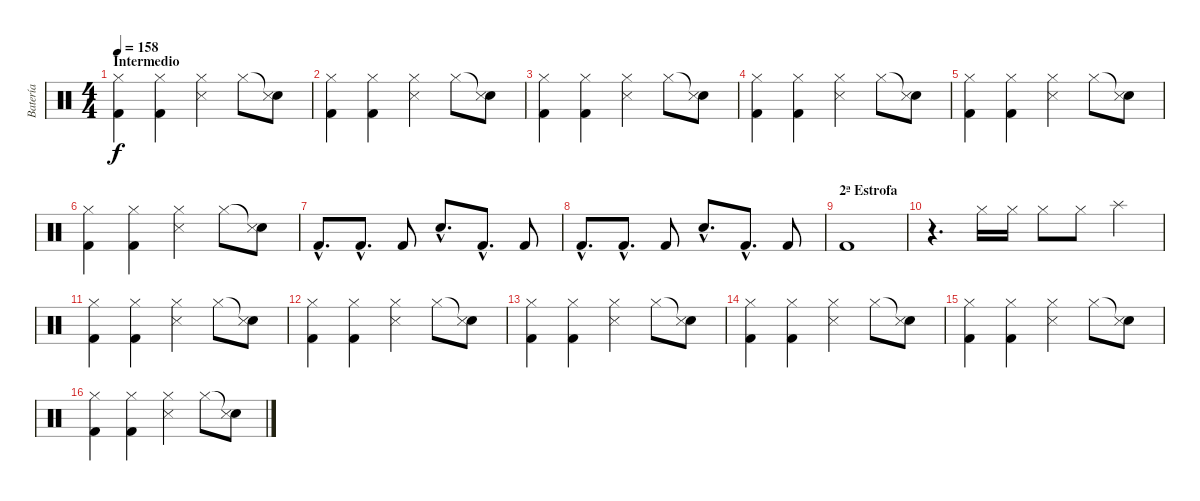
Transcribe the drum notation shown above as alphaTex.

\track ("Batería" "Batería") {instrument percussion}
\staff {score}
\articulation defaults
\ts (4 4)
\section ("" "Intermedio")
\tempo 158
\clef neutral
\ks c
("Hi-Hat (closed)" "Kick (hit) 2").4{dy f} ("Hi-Hat (closed)" "Kick (hit) 2").4 ("Hi-Hat (closed)" "Snare (side stick) 3").4 "Hi-Hat (closed)".8 ("Snare (hit)"{t} "Snare (side stick) 3").8 |
("Hi-Hat (closed)" "Kick (hit) 2").4 ("Hi-Hat (closed)" "Kick (hit) 2").4 ("Hi-Hat (closed)" "Snare (side stick) 3").4 "Hi-Hat (closed)".8 ("Snare (hit)"{t} "Snare (side stick) 3").8 |
("Hi-Hat (closed)" "Kick (hit) 2").4 ("Hi-Hat (closed)" "Kick (hit) 2").4 ("Hi-Hat (closed)" "Snare (side stick) 3").4 "Hi-Hat (closed)".8 ("Snare (hit)"{t} "Snare (side stick) 3").8 |
("Hi-Hat (closed)" "Kick (hit) 2").4 ("Hi-Hat (closed)" "Kick (hit) 2").4 ("Hi-Hat (closed)" "Snare (side stick) 3").4 "Hi-Hat (closed)".8 ("Snare (hit)"{t} "Snare (side stick) 3").8 |
("Hi-Hat (closed)" "Kick (hit) 2").4 ("Hi-Hat (closed)" "Kick (hit) 2").4 ("Hi-Hat (closed)" "Snare (side stick) 3").4 "Hi-Hat (closed)".8 ("Snare (hit)"{t} "Snare (side stick) 3").8 |
("Hi-Hat (closed)" "Kick (hit) 2").4 ("Hi-Hat (closed)" "Kick (hit) 2").4 ("Hi-Hat (closed)" "Snare (side stick) 3").4 "Hi-Hat (closed)".8 ("Snare (hit)"{t} "Snare (side stick) 3").8 |
"Kick (hit) 2"{hac}.8{d} "Kick (hit) 2"{hac}.8{d} "Kick (hit) 2".8 "Electric Snare (hit)"{hac}.8{d} "Kick (hit) 2"{hac}.8{d} "Kick (hit) 2".8 |
"Kick (hit) 2"{hac}.8{d} "Kick (hit) 2"{hac}.8{d} "Kick (hit) 2".8 "Electric Snare (hit)"{hac}.8{d} "Kick (hit) 2"{hac}.8{d} "Kick (hit) 2".8 |
\section ("" "2ª Estrofa")
"Kick (hit) 2".1 |
r.4{d} "Hi-Hat (closed)".16 "Hi-Hat (closed)".16 "Hi-Hat (closed)".8 "Hi-Hat (closed)".8 "Splash (hit)".4 |
("Hi-Hat (closed)" "Kick (hit) 2").4 ("Hi-Hat (closed)" "Kick (hit) 2").4 ("Hi-Hat (closed)" "Snare (side stick) 3").4 "Hi-Hat (closed)".8 ("Snare (hit)"{t} "Snare (side stick) 3").8 |
("Hi-Hat (closed)" "Kick (hit) 2").4 ("Hi-Hat (closed)" "Kick (hit) 2").4 ("Hi-Hat (closed)" "Snare (side stick) 3").4 "Hi-Hat (closed)".8 ("Snare (hit)"{t} "Snare (side stick) 3").8 |
("Hi-Hat (closed)" "Kick (hit) 2").4 ("Hi-Hat (closed)" "Kick (hit) 2").4 ("Hi-Hat (closed)" "Snare (side stick) 3").4 "Hi-Hat (closed)".8 ("Snare (hit)"{t} "Snare (side stick) 3").8 |
("Hi-Hat (closed)" "Kick (hit) 2").4 ("Hi-Hat (closed)" "Kick (hit) 2").4 ("Hi-Hat (closed)" "Snare (side stick) 3").4 "Hi-Hat (closed)".8 ("Snare (hit)"{t} "Snare (side stick) 3").8 |
("Hi-Hat (closed)" "Kick (hit) 2").4 ("Hi-Hat (closed)" "Kick (hit) 2").4 ("Hi-Hat (closed)" "Snare (side stick) 3").4 "Hi-Hat (closed)".8 ("Snare (hit)"{t} "Snare (side stick) 3").8 |
("Hi-Hat (closed)" "Kick (hit) 2").4 ("Hi-Hat (closed)" "Kick (hit) 2").4 ("Hi-Hat (closed)" "Snare (side stick) 3").4 "Hi-Hat (closed)".8 ("Snare (hit)"{t} "Snare (side stick) 3").8
